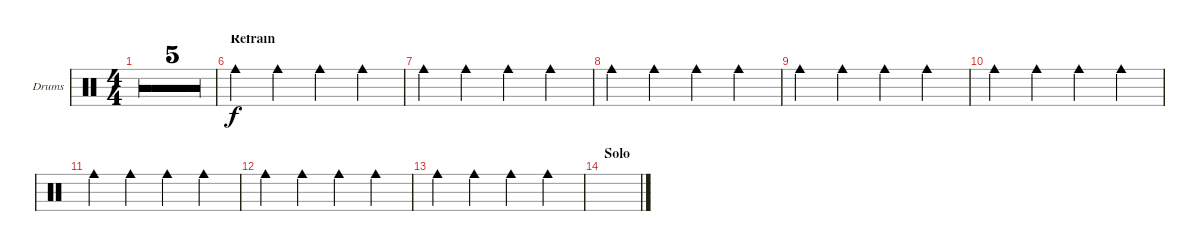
\defaultSystemsLayout 4
\bracketExtendMode groupsimilarinstruments
\firstSystemTrackNameOrientation horizontal
\otherSystemsTrackNameOrientation horizontal
\track ("Cow Bell" "Drums") {multiBarRest instrument percussion}
\staff {score}
\articulation defaults
\ts (4 4)
\tempo 120
\clef neutral
\ks c
|
|
|
|
|
\section ("" "Refrain")
"Cowbell medium (hit)".4 "Cowbell medium (hit)".4 "Cowbell medium (hit)".4 "Cowbell medium (hit)".4 |
"Cowbell medium (hit)".4 "Cowbell medium (hit)".4 "Cowbell medium (hit)".4 "Cowbell medium (hit)".4 |
"Cowbell medium (hit)".4 "Cowbell medium (hit)".4 "Cowbell medium (hit)".4 "Cowbell medium (hit)".4 |
"Cowbell medium (hit)".4 "Cowbell medium (hit)".4 "Cowbell medium (hit)".4 "Cowbell medium (hit)".4 |
"Cowbell medium (hit)".4 "Cowbell medium (hit)".4 "Cowbell medium (hit)".4 "Cowbell medium (hit)".4 |
"Cowbell medium (hit)".4 "Cowbell medium (hit)".4 "Cowbell medium (hit)".4 "Cowbell medium (hit)".4 |
"Cowbell medium (hit)".4 "Cowbell medium (hit)".4 "Cowbell medium (hit)".4 "Cowbell medium (hit)".4 |
"Cowbell medium (hit)".4 "Cowbell medium (hit)".4 "Cowbell medium (hit)".4 "Cowbell medium (hit)".4 |
\section ("" "Solo")
